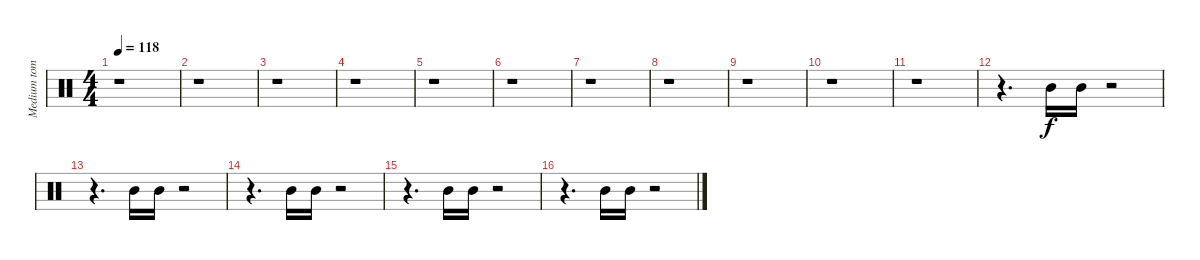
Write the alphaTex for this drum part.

\track ("Medium tom          " "Medium tom") {instrument percussion}
\staff {score}
\articulation defaults
\ts (4 4)
\tempo 118
\clef neutral
\ks c
r.1{dy f} |
r.1 |
r.1 |
r.1 |
r.1 |
r.1 |
r.1 |
r.1 |
r.1 |
r.1 |
r.1 |
r.4{d} "Mid Tom (hit)".16 "Mid Tom (hit)".16 r.2 |
r.4{d} "Mid Tom (hit)".16 "Mid Tom (hit)".16 r.2 |
r.4{d} "Mid Tom (hit)".16 "Mid Tom (hit)".16 r.2 |
r.4{d} "Mid Tom (hit)".16 "Mid Tom (hit)".16 r.2 |
r.4{d} "Mid Tom (hit)".16 "Mid Tom (hit)".16 r.2
